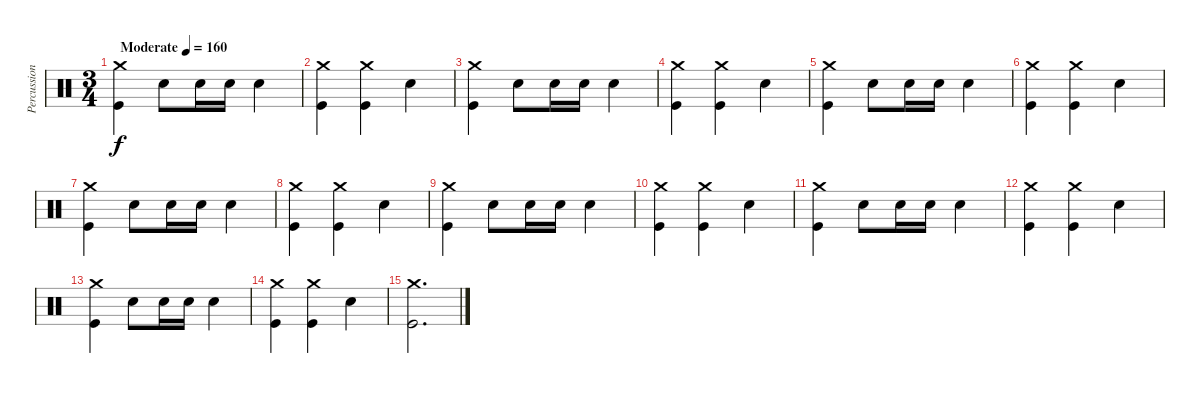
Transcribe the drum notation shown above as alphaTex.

\track ("Percussion" "Percussion") {instrument percussion}
\staff {score}
\articulation defaults
\ts (3 4)
\tempo (160 "Moderate")
\clef neutral
\ks c
("Crash medium (hit)" "Kick (hit)").4{dy f} "Snare (hit) 2".8 "Snare (hit) 2".16 "Snare (hit) 2".16 "Snare (hit) 2".4 |
("Crash medium (hit)" "Kick (hit)").4 ("Crash medium (hit)" "Kick (hit)").4 "Snare (hit) 2".4 |
("Crash medium (hit)" "Kick (hit)").4 "Snare (hit) 2".8 "Snare (hit) 2".16 "Snare (hit) 2".16 "Snare (hit) 2".4 |
("Crash medium (hit)" "Kick (hit)").4 ("Crash medium (hit)" "Kick (hit)").4 "Snare (hit) 2".4 |
("Crash medium (hit)" "Kick (hit)").4 "Snare (hit) 2".8 "Snare (hit) 2".16 "Snare (hit) 2".16 "Snare (hit) 2".4 |
("Crash medium (hit)" "Kick (hit)").4 ("Crash medium (hit)" "Kick (hit)").4 "Snare (hit) 2".4 |
("Crash medium (hit)" "Kick (hit)").4 "Snare (hit) 2".8 "Snare (hit) 2".16 "Snare (hit) 2".16 "Snare (hit) 2".4 |
("Crash medium (hit)" "Kick (hit)").4 ("Crash medium (hit)" "Kick (hit)").4 "Snare (hit) 2".4 |
("Crash medium (hit)" "Kick (hit)").4 "Snare (hit) 2".8 "Snare (hit) 2".16 "Snare (hit) 2".16 "Snare (hit) 2".4 |
("Crash medium (hit)" "Kick (hit)").4 ("Crash medium (hit)" "Kick (hit)").4 "Snare (hit) 2".4 |
("Crash medium (hit)" "Kick (hit)").4 "Snare (hit) 2".8 "Snare (hit) 2".16 "Snare (hit) 2".16 "Snare (hit) 2".4 |
("Crash medium (hit)" "Kick (hit)").4 ("Crash medium (hit)" "Kick (hit)").4 "Snare (hit) 2".4 |
("Crash medium (hit)" "Kick (hit)").4 "Snare (hit) 2".8 "Snare (hit) 2".16 "Snare (hit) 2".16 "Snare (hit) 2".4 |
("Crash medium (hit)" "Kick (hit)").4 ("Crash medium (hit)" "Kick (hit)").4 "Snare (hit) 2".4 |
("Crash medium (hit)" "Kick (hit)").2{d}
